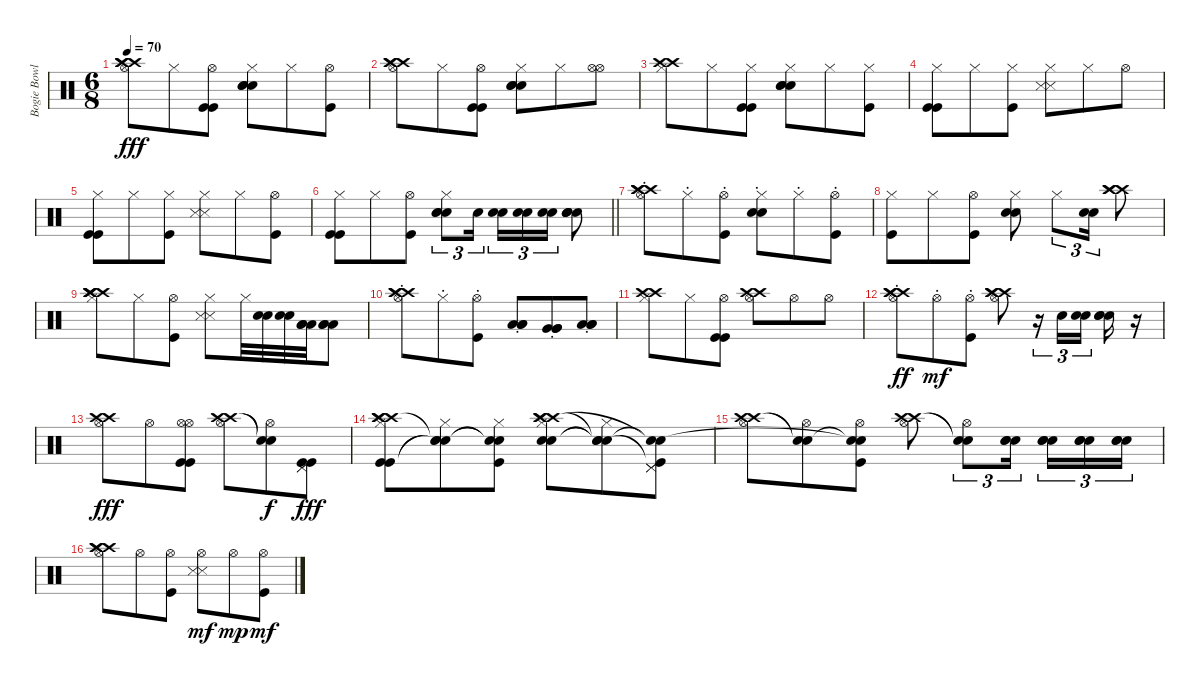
\track ("Bogie Bowles" "Bogie Bowl") {instrument percussion}
\staff {score}
\articulation defaults
\ts (6 8)
\tempo 70
\clef neutral
\ks c
("Hi-Hat (open)" "Crash high (hit)" "Crash high (hit)" "Crash high (hit)").8{dy fff} "Hi-Hat (closed)".8 ("Hi-Hat (open)" "Kick (hit)" "Kick (hit)").8 ("Hi-Hat (closed)" "Snare (hit) 2" "Snare (hit) 2" "Snare (hit) 2").8 "Hi-Hat (closed)".8 ("Hi-Hat (open)" "Kick (hit)").8 |
("Hi-Hat (open)" "Crash high (hit)" "Crash high (hit)" "Crash high (hit)").8 "Hi-Hat (closed)".8 ("Hi-Hat (open)" "Kick (hit)" "Kick (hit)").8 ("Hi-Hat (closed)" "Snare (hit) 2" "Snare (hit) 2" "Snare (hit) 2").8 "Hi-Hat (closed)".8 ("Hi-Hat (open)" "Hi-Hat (open)").8 |
("Hi-Hat (closed)" "Crash high (hit)" "Crash high (hit)").8 "Hi-Hat (closed)".8 ("Hi-Hat (closed)" "Kick (hit)" "Kick (hit)").8 ("Hi-Hat (closed)" "Snare (hit) 2" "Snare (hit) 2" "Snare (hit) 2").8 "Hi-Hat (closed)".8 ("Hi-Hat (closed)" "Kick (hit)").8 |
("Hi-Hat (closed)" "Kick (hit)" "Kick (hit)").8 "Hi-Hat (closed)".8 ("Hi-Hat (closed)" "Kick (hit)").8 ("Hi-Hat (closed)" "Snare (side stick) 3" "Snare (side stick) 3").8 "Hi-Hat (closed)".8 "Hi-Hat (open)".8 |
("Hi-Hat (closed)" "Kick (hit)" "Kick (hit)").8 "Hi-Hat (closed)".8 ("Hi-Hat (closed)" "Kick (hit)").8 ("Hi-Hat (closed)" "Snare (side stick) 3" "Snare (side stick) 3").8 "Hi-Hat (closed)".8 ("Hi-Hat (open)" "Kick (hit)").8 |
\barLineRight lightlight
("Hi-Hat (closed)" "Kick (hit)" "Kick (hit)").8 "Hi-Hat (closed)".8 ("Hi-Hat (open)" "Kick (hit)").8 ("Hi-Hat (closed)" "Snare (hit) 2" "Snare (hit) 2" "Snare (hit) 2").8{tu (3 2)} "Snare (hit) 2".16{tu (3 2) beam splitsecondary} ("Snare (hit) 2" "Snare (hit) 2").16{tu (3 2)} ("Snare (hit) 2" "Snare (hit) 2").16{tu (3 2)} ("Snare (hit) 2" "Snare (hit) 2").16{tu (3 2)} ("Snare (hit) 2" "Snare (hit) 2" "Snare (hit) 2" "Snare (hit) 2").8 |
("Hi-Hat (open)"{st} "Crash high (hit)" "Crash high (hit)" "Crash high (hit)").8 "Hi-Hat (closed)"{st}.8 ("Hi-Hat (open)"{st} "Kick (hit)").8 ("Hi-Hat (closed)"{st} "Snare (hit) 2" "Snare (hit) 2").8 "Hi-Hat (closed)"{st}.8 ("Hi-Hat (open)"{st} "Kick (hit)").8 |
("Hi-Hat (closed)" "Kick (hit)").8 "Hi-Hat (closed)".8 ("Hi-Hat (open)" "Kick (hit)").8 ("Hi-Hat (closed)" "Snare (hit) 2" "Snare (hit) 2").8 "Hi-Hat (closed)".8{tu (3 2)} ("Snare (hit) 2" "Snare (hit) 2").16{tu (3 2)} ("Crash high (hit)" "Crash high (hit)" "Crash high (hit)").8 |
("Hi-Hat (closed)" "Crash high (hit)" "Crash high (hit)" "Crash high (hit)" "Crash high (hit)").8 "Hi-Hat (closed)".8 ("Hi-Hat (open)" "Kick (hit)").8 ("Hi-Hat (closed)" "Snare (side stick) 3" "Snare (side stick) 3").8 "Hi-Hat (closed)".32 ("Snare (hit) 2" "Snare (hit) 2").32 ("Snare (hit) 2" "Snare (hit) 2").32 ("Low Tom (hit)" "Low Tom (hit)" "Low Tom (hit)").32 ("Low Tom (hit)" "Low Tom (hit)" "Low Tom (hit)").8 |
("Hi-Hat (open)"{st} "Crash high (hit)" "Crash high (hit)" "Crash high (hit)").8 "Hi-Hat (closed)"{st}.8 ("Hi-Hat (open)"{st} "Kick (hit)").8 ("Low Tom (hit)"{st} "Low Tom (hit)"{st} "Low Tom (hit)"{st}).8 ("Very Low Tom (hit)"{st} "Very Low Tom (hit)"{st} "Very Low Tom (hit)"{st}).8 ("Low Floor Tom (hit)"{st} "Low Floor Tom (hit)"{st} "Low Floor Tom (hit)"{st}).8 |
("Hi-Hat (closed)" "Crash high (hit)" "Crash high (hit)").8 "Hi-Hat (closed)".8 ("Hi-Hat (open)" "Kick (hit)" "Kick (hit)").8 ("Hi-Hat (open)" "Crash high (hit)" "Crash high (hit)").8 "Hi-Hat (open)".8 "Hi-Hat (open)".8 |
("Hi-Hat (open)"{st} "Crash high (hit)" "Crash high (hit)" "Crash high (hit)").8{dy ff} "Hi-Hat (open)"{st}.8{dy mf} ("Hi-Hat (open)"{st} "Kick (hit)").8 ("Hi-Hat (open)" "Crash high (hit)" "Crash high (hit)" "Crash high (hit)").8 r.16{tu (3 2)} "Snare (hit) 2".16{tu (3 2)} ("Snare (hit) 2" "Snare (hit) 2").16{tu (3 2) beam splitsecondary} ("Snare (hit) 2" "Snare (hit) 2" "Snare (hit) 2").16 r.16 |
("Hi-Hat (open)" "Crash high (hit)" "Crash high (hit)").8{dy fff} "Hi-Hat (open)".8 ("Hi-Hat (open)" "Hi-Hat (open)" "Kick (hit)" "Kick (hit)").8 ("Hi-Hat (open)" "Crash high (hit)" "Crash high (hit)").8 ("Hi-Hat (open)" "Snare (hit)"{t} "Snare (hit)"{t}).8{dy f} ("Pedal Hi-Hat (hit)" "Pedal Hi-Hat (hit)" "Kick (hit)" "Kick (hit)").8{dy fff} |
("Hi-Hat (closed)" "Kick (hit)" "Kick (hit)" "Crash high (hit)" "Crash high (hit)" "Crash high (hit)").8 ("Hi-Hat (closed)" "Snare (hit)"{t} "Snare (hit)"{t} "Snare (hit)"{t}).8 ("Hi-Hat (closed)" "Kick (hit)" "Snare (hit)"{t} "Snare (hit)"{t}).8 ("Hi-Hat (closed)" "Snare (hit) 2" "Snare (hit) 2" "Crash high (hit)" "Crash high (hit)" "Crash high (hit)").8 ("Hi-Hat (closed)" "Snare (hit)"{t} "Snare (hit)"{t} "Snare (hit)"{t}).8 ("Pedal Hi-Hat (hit)" "Pedal Hi-Hat (hit)" "Kick (hit)"{t} "Snare (hit)"{t} "Snare (hit)"{t}).8 |
("Hi-Hat (open)" "Crash high (hit)" "Crash high (hit)").8 ("Hi-Hat (open)" "Snare (hit)"{t} "Snare (hit)"{t}).8 ("Hi-Hat (open)" "Kick (hit)" "Snare (hit)"{t} "Snare (hit)"{t}).8 ("Hi-Hat (open)" "Crash high (hit)" "Crash high (hit)").8 ("Hi-Hat (open)" "Snare (hit)"{t} "Snare (hit)"{t}).8{tu (3 2)} ("Snare (hit) 2" "Snare (hit) 2" "Snare (hit) 2").16{tu (3 2) beam splitsecondary} ("Snare (hit) 2" "Snare (hit) 2" "Snare (hit) 2").16{tu (3 2)} ("Snare (hit) 2" "Snare (hit) 2" "Snare (hit) 2").16{tu (3 2)} ("Snare (hit) 2" "Snare (hit) 2" "Snare (hit) 2").16{tu (3 2)} |
("Hi-Hat (open)" "Crash high (hit)" "Crash high (hit)" "Crash high (hit)").8 "Hi-Hat (open)".8 ("Hi-Hat (open)" "Kick (hit)").8 ("Hi-Hat (open)" "Snare (side stick) 3" "Snare (side stick) 3").8{dy mf} "Hi-Hat (open)".8{dy mp} ("Hi-Hat (open)" "Kick (hit)").8{dy mf}
